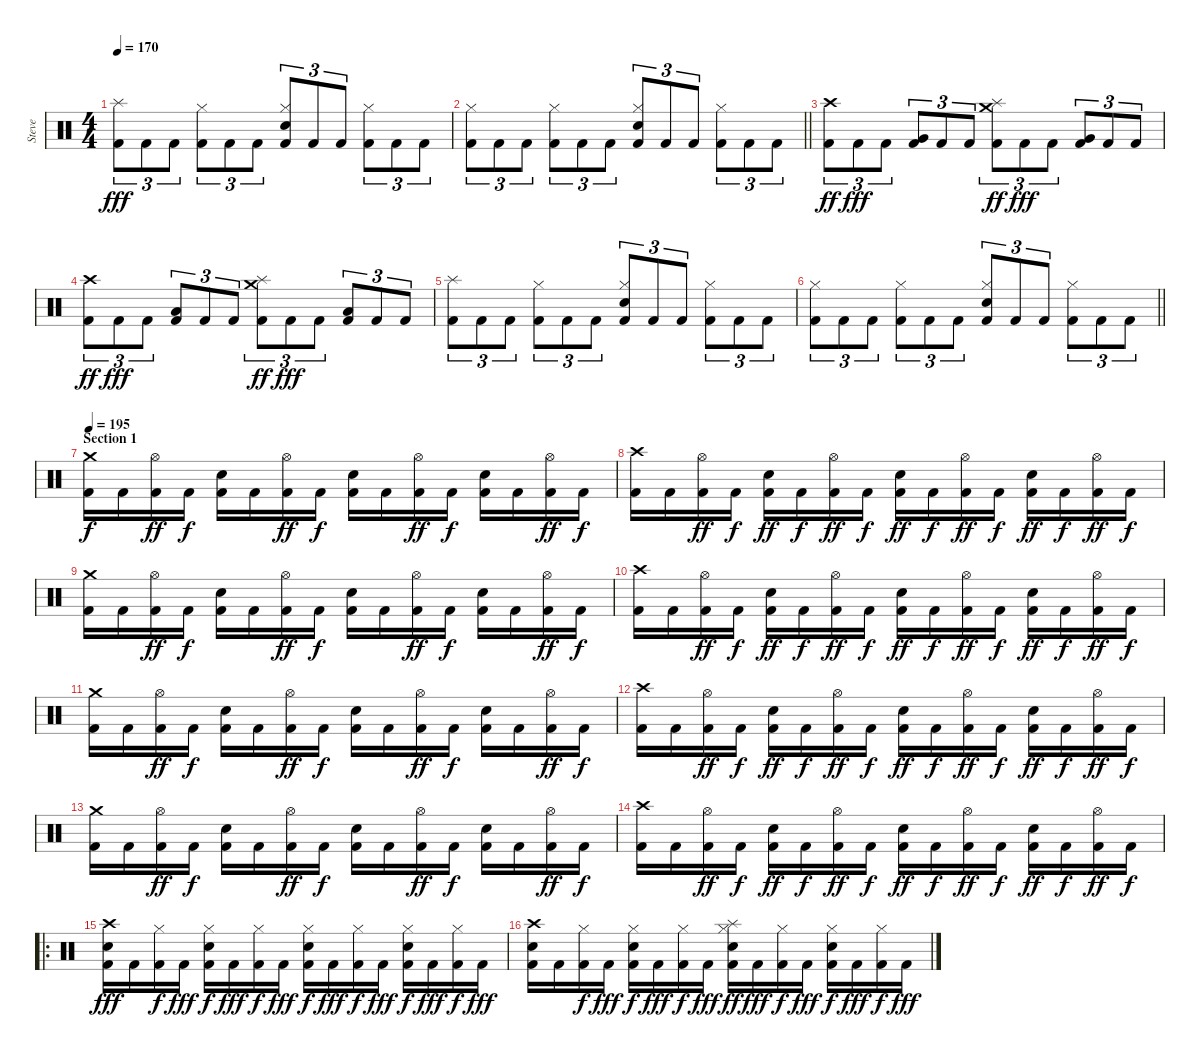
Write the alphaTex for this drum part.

\track ("Steve" "Steve") {instrument percussion}
\staff {score}
\articulation defaults
\ts (4 4)
\tempo 170
\clef neutral
\ks c
("Splash (hit)" "Kick (hit) 2").8{tu (3 2) dy fff} "Kick (hit) 2".8{tu (3 2)} "Kick (hit) 2".8{tu (3 2)} ("Hi-Hat (closed)" "Kick (hit) 2").8{tu (3 2)} "Kick (hit) 2".8{tu (3 2)} "Kick (hit) 2".8{tu (3 2)} ("Snare (hit) 2" "Hi-Hat (closed)" "Kick (hit) 2").8{tu (3 2)} "Kick (hit) 2".8{tu (3 2)} "Kick (hit) 2".8{tu (3 2)} ("Hi-Hat (closed)" "Kick (hit) 2").8{tu (3 2)} "Kick (hit) 2".8{tu (3 2)} "Kick (hit) 2".8{tu (3 2)} |
\barLineRight lightlight
("Hi-Hat (closed)" "Kick (hit) 2").8{tu (3 2)} "Kick (hit) 2".8{tu (3 2)} "Kick (hit) 2".8{tu (3 2)} ("Hi-Hat (closed)" "Kick (hit) 2").8{tu (3 2)} "Kick (hit) 2".8{tu (3 2)} "Kick (hit) 2".8{tu (3 2)} ("Snare (hit) 2" "Hi-Hat (closed)" "Kick (hit) 2").8{tu (3 2)} "Kick (hit) 2".8{tu (3 2)} "Kick (hit) 2".8{tu (3 2)} ("Hi-Hat (closed)" "Kick (hit) 2").8{tu (3 2)} "Kick (hit) 2".8{tu (3 2)} "Kick (hit) 2".8{tu (3 2)} |
("Crash high (hit)" "Kick (hit) 2").8{tu (3 2) dy ff} "Kick (hit) 2".8{tu (3 2) dy fff} "Kick (hit) 2".8{tu (3 2)} ("Very Low Tom (hit)" "Kick (hit) 2").8{tu (3 2)} "Kick (hit) 2".8{tu (3 2)} "Kick (hit) 2".8{tu (3 2)} ("Crash medium (hit)" "Splash (hit)" "Kick (hit) 2").8{tu (3 2) dy ff} "Kick (hit) 2".8{tu (3 2) dy fff} "Kick (hit) 2".8{tu (3 2)} ("Very Low Tom (hit)" "Kick (hit) 2").8{tu (3 2)} "Kick (hit) 2".8{tu (3 2)} "Kick (hit) 2".8{tu (3 2)} |
("Crash high (hit)" "Kick (hit) 2").8{tu (3 2) dy ff} "Kick (hit) 2".8{tu (3 2) dy fff} "Kick (hit) 2".8{tu (3 2)} ("Low Tom (hit)" "Kick (hit) 2").8{tu (3 2)} "Kick (hit) 2".8{tu (3 2)} "Kick (hit) 2".8{tu (3 2)} ("Crash medium (hit)" "Splash (hit)" "Kick (hit) 2").8{tu (3 2) dy ff} "Kick (hit) 2".8{tu (3 2) dy fff} "Kick (hit) 2".8{tu (3 2)} ("Low Tom (hit)" "Kick (hit) 2").8{tu (3 2)} "Kick (hit) 2".8{tu (3 2)} "Kick (hit) 2".8{tu (3 2)} |
("Splash (hit)" "Kick (hit) 2").8{tu (3 2)} "Kick (hit) 2".8{tu (3 2)} "Kick (hit) 2".8{tu (3 2)} ("Hi-Hat (closed)" "Kick (hit) 2").8{tu (3 2)} "Kick (hit) 2".8{tu (3 2)} "Kick (hit) 2".8{tu (3 2)} ("Snare (hit) 2" "Hi-Hat (closed)" "Kick (hit) 2").8{tu (3 2)} "Kick (hit) 2".8{tu (3 2)} "Kick (hit) 2".8{tu (3 2)} ("Hi-Hat (closed)" "Kick (hit) 2").8{tu (3 2)} "Kick (hit) 2".8{tu (3 2)} "Kick (hit) 2".8{tu (3 2)} |
\barLineRight lightlight
("Hi-Hat (closed)" "Kick (hit) 2").8{tu (3 2)} "Kick (hit) 2".8{tu (3 2)} "Kick (hit) 2".8{tu (3 2)} ("Hi-Hat (closed)" "Kick (hit) 2").8{tu (3 2)} "Kick (hit) 2".8{tu (3 2)} "Kick (hit) 2".8{tu (3 2)} ("Snare (hit) 2" "Hi-Hat (closed)" "Kick (hit) 2").8{tu (3 2)} "Kick (hit) 2".8{tu (3 2)} "Kick (hit) 2".8{tu (3 2)} ("Hi-Hat (closed)" "Kick (hit) 2").8{tu (3 2)} "Kick (hit) 2".8{tu (3 2)} "Kick (hit) 2".8{tu (3 2)} |
\section ("" "Section 1")
\tempo 195
("Crash medium (hit)" "Kick (hit) 2").16{dy f} "Kick (hit) 2".16 ("Hi-Hat (open)" "Kick (hit) 2").16{dy ff} "Kick (hit) 2".16{dy f} ("Snare (hit) 2" "Kick (hit) 2").16 "Kick (hit) 2".16 ("Hi-Hat (open)" "Kick (hit) 2").16{dy ff} "Kick (hit) 2".16{dy f} ("Snare (hit) 2" "Kick (hit) 2").16 "Kick (hit) 2".16 ("Hi-Hat (open)" "Kick (hit) 2").16{dy ff} "Kick (hit) 2".16{dy f} ("Snare (hit) 2" "Kick (hit) 2").16 "Kick (hit) 2".16 ("Hi-Hat (open)" "Kick (hit) 2").16{dy ff} "Kick (hit) 2".16{dy f} |
("Crash high (hit)" "Kick (hit) 2").16 "Kick (hit) 2".16 ("Hi-Hat (open)" "Kick (hit) 2").16{dy ff} "Kick (hit) 2".16{dy f} ("Snare (hit) 2" "Kick (hit) 2").16{dy ff} "Kick (hit) 2".16{dy f} ("Hi-Hat (open)" "Kick (hit) 2").16{dy ff} "Kick (hit) 2".16{dy f} ("Snare (hit) 2" "Kick (hit) 2").16{dy ff} "Kick (hit) 2".16{dy f} ("Hi-Hat (open)" "Kick (hit) 2").16{dy ff} "Kick (hit) 2".16{dy f} ("Snare (hit) 2" "Kick (hit) 2").16{dy ff} "Kick (hit) 2".16{dy f} ("Hi-Hat (open)" "Kick (hit) 2").16{dy ff} "Kick (hit) 2".16{dy f} |
("Crash medium (hit)" "Kick (hit) 2").16 "Kick (hit) 2".16 ("Hi-Hat (open)" "Kick (hit) 2").16{dy ff} "Kick (hit) 2".16{dy f} ("Snare (hit) 2" "Kick (hit) 2").16 "Kick (hit) 2".16 ("Hi-Hat (open)" "Kick (hit) 2").16{dy ff} "Kick (hit) 2".16{dy f} ("Snare (hit) 2" "Kick (hit) 2").16 "Kick (hit) 2".16 ("Hi-Hat (open)" "Kick (hit) 2").16{dy ff} "Kick (hit) 2".16{dy f} ("Snare (hit) 2" "Kick (hit) 2").16 "Kick (hit) 2".16 ("Hi-Hat (open)" "Kick (hit) 2").16{dy ff} "Kick (hit) 2".16{dy f} |
("Crash high (hit)" "Kick (hit) 2").16 "Kick (hit) 2".16 ("Hi-Hat (open)" "Kick (hit) 2").16{dy ff} "Kick (hit) 2".16{dy f} ("Snare (hit) 2" "Kick (hit) 2").16{dy ff} "Kick (hit) 2".16{dy f} ("Hi-Hat (open)" "Kick (hit) 2").16{dy ff} "Kick (hit) 2".16{dy f} ("Snare (hit) 2" "Kick (hit) 2").16{dy ff} "Kick (hit) 2".16{dy f} ("Hi-Hat (open)" "Kick (hit) 2").16{dy ff} "Kick (hit) 2".16{dy f} ("Snare (hit) 2" "Kick (hit) 2").16{dy ff} "Kick (hit) 2".16{dy f} ("Hi-Hat (open)" "Kick (hit) 2").16{dy ff} "Kick (hit) 2".16{dy f} |
("Crash medium (hit)" "Kick (hit) 2").16 "Kick (hit) 2".16 ("Hi-Hat (open)" "Kick (hit) 2").16{dy ff} "Kick (hit) 2".16{dy f} ("Snare (hit) 2" "Kick (hit) 2").16 "Kick (hit) 2".16 ("Hi-Hat (open)" "Kick (hit) 2").16{dy ff} "Kick (hit) 2".16{dy f} ("Snare (hit) 2" "Kick (hit) 2").16 "Kick (hit) 2".16 ("Hi-Hat (open)" "Kick (hit) 2").16{dy ff} "Kick (hit) 2".16{dy f} ("Snare (hit) 2" "Kick (hit) 2").16 "Kick (hit) 2".16 ("Hi-Hat (open)" "Kick (hit) 2").16{dy ff} "Kick (hit) 2".16{dy f} |
("Crash high (hit)" "Kick (hit) 2").16 "Kick (hit) 2".16 ("Hi-Hat (open)" "Kick (hit) 2").16{dy ff} "Kick (hit) 2".16{dy f} ("Snare (hit) 2" "Kick (hit) 2").16{dy ff} "Kick (hit) 2".16{dy f} ("Hi-Hat (open)" "Kick (hit) 2").16{dy ff} "Kick (hit) 2".16{dy f} ("Snare (hit) 2" "Kick (hit) 2").16{dy ff} "Kick (hit) 2".16{dy f} ("Hi-Hat (open)" "Kick (hit) 2").16{dy ff} "Kick (hit) 2".16{dy f} ("Snare (hit) 2" "Kick (hit) 2").16{dy ff} "Kick (hit) 2".16{dy f} ("Hi-Hat (open)" "Kick (hit) 2").16{dy ff} "Kick (hit) 2".16{dy f} |
("Crash medium (hit)" "Kick (hit) 2").16 "Kick (hit) 2".16 ("Hi-Hat (open)" "Kick (hit) 2").16{dy ff} "Kick (hit) 2".16{dy f} ("Snare (hit) 2" "Kick (hit) 2").16 "Kick (hit) 2".16 ("Hi-Hat (open)" "Kick (hit) 2").16{dy ff} "Kick (hit) 2".16{dy f} ("Snare (hit) 2" "Kick (hit) 2").16 "Kick (hit) 2".16 ("Hi-Hat (open)" "Kick (hit) 2").16{dy ff} "Kick (hit) 2".16{dy f} ("Snare (hit) 2" "Kick (hit) 2").16 "Kick (hit) 2".16 ("Hi-Hat (open)" "Kick (hit) 2").16{dy ff} "Kick (hit) 2".16{dy f} |
("Crash high (hit)" "Kick (hit) 2").16 "Kick (hit) 2".16 ("Hi-Hat (open)" "Kick (hit) 2").16{dy ff} "Kick (hit) 2".16{dy f} ("Snare (hit) 2" "Kick (hit) 2").16{dy ff} "Kick (hit) 2".16{dy f} ("Hi-Hat (open)" "Kick (hit) 2").16{dy ff} "Kick (hit) 2".16{dy f} ("Snare (hit) 2" "Kick (hit) 2").16{dy ff} "Kick (hit) 2".16{dy f} ("Hi-Hat (open)" "Kick (hit) 2").16{dy ff} "Kick (hit) 2".16{dy f} ("Snare (hit) 2" "Kick (hit) 2").16{dy ff} "Kick (hit) 2".16{dy f} ("Hi-Hat (open)" "Kick (hit) 2").16{dy ff} "Kick (hit) 2".16{dy f} |
\ro
("Snare (hit) 2" "Crash high (hit)" "Kick (hit) 2").16{dy fff} "Kick (hit) 2".16 ("Hi-Hat (closed)" "Kick (hit) 2").16{dy f} "Kick (hit) 2".16{dy fff} ("Snare (hit) 2" "Hi-Hat (closed)" "Kick (hit) 2").16{dy f} "Kick (hit) 2".16{dy fff} ("Hi-Hat (closed)" "Kick (hit) 2").16{dy f} "Kick (hit) 2".16{dy fff} ("Snare (hit) 2" "Hi-Hat (closed)" "Kick (hit) 2").16{dy f} "Kick (hit) 2".16{dy fff} ("Hi-Hat (closed)" "Kick (hit) 2").16{dy f} "Kick (hit) 2".16{dy fff} ("Snare (hit) 2" "Hi-Hat (closed)" "Kick (hit) 2").16{dy f} "Kick (hit) 2".16{dy fff} ("Hi-Hat (closed)" "Kick (hit) 2").16{dy f} "Kick (hit) 2".16{dy fff} |
("Snare (hit) 2" "Crash high (hit)" "Kick (hit) 2").16 "Kick (hit) 2".16 ("Hi-Hat (closed)" "Kick (hit) 2").16{dy f} "Kick (hit) 2".16{dy fff} ("Snare (hit) 2" "Hi-Hat (closed)" "Kick (hit) 2").16{dy f} "Kick (hit) 2".16{dy fff} ("Hi-Hat (closed)" "Kick (hit) 2").16{dy f} "Kick (hit) 2".16{dy fff} ("Snare (hit) 2" "Splash (hit)" "Hi-Hat (closed)" "Kick (hit) 2").16{dy ff} "Kick (hit) 2".16{dy fff} ("Hi-Hat (closed)" "Kick (hit) 2").16{dy f} "Kick (hit) 2".16{dy fff} ("Snare (hit) 2" "Hi-Hat (closed)" "Kick (hit) 2").16{dy f} "Kick (hit) 2".16{dy fff} ("Hi-Hat (closed)" "Kick (hit) 2").16{dy f} "Kick (hit) 2".16{dy fff}
